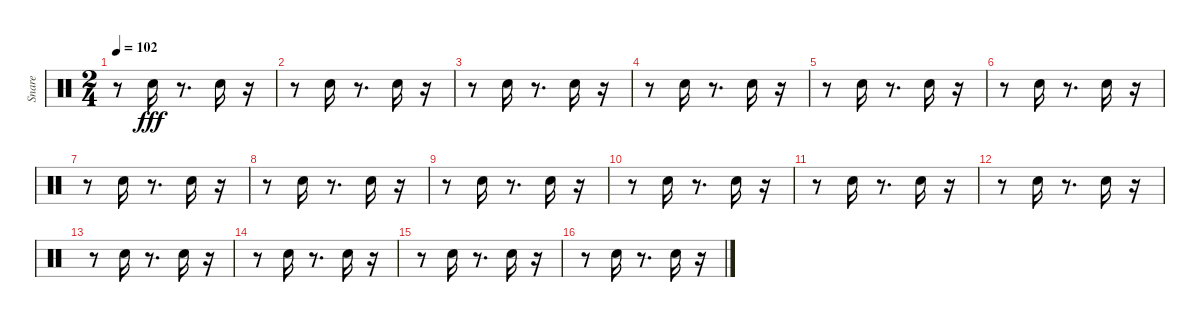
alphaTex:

\track ("Snare" "Snare") {instrument percussion}
\staff {score}
\articulation defaults
\ts (2 4)
\tempo 102
\clef neutral
\ks c
r.8{dy fff} "Electric Snare (hit)".16 r.8{d} "Electric Snare (hit)".16 r.16 |
r.8 "Electric Snare (hit)".16 r.8{d} "Electric Snare (hit)".16 r.16 |
r.8 "Electric Snare (hit)".16 r.8{d} "Electric Snare (hit)".16 r.16 |
r.8 "Electric Snare (hit)".16 r.8{d} "Electric Snare (hit)".16 r.16 |
r.8 "Electric Snare (hit)".16 r.8{d} "Electric Snare (hit)".16 r.16 |
r.8 "Electric Snare (hit)".16 r.8{d} "Electric Snare (hit)".16 r.16 |
r.8 "Electric Snare (hit)".16 r.8{d} "Electric Snare (hit)".16 r.16 |
r.8 "Electric Snare (hit)".16 r.8{d} "Electric Snare (hit)".16 r.16 |
r.8 "Electric Snare (hit)".16 r.8{d} "Electric Snare (hit)".16 r.16 |
r.8 "Electric Snare (hit)".16 r.8{d} "Electric Snare (hit)".16 r.16 |
r.8 "Electric Snare (hit)".16 r.8{d} "Electric Snare (hit)".16 r.16 |
r.8 "Electric Snare (hit)".16 r.8{d} "Electric Snare (hit)".16 r.16 |
r.8 "Electric Snare (hit)".16 r.8{d} "Electric Snare (hit)".16 r.16 |
r.8 "Electric Snare (hit)".16 r.8{d} "Electric Snare (hit)".16 r.16 |
r.8 "Electric Snare (hit)".16 r.8{d} "Electric Snare (hit)".16 r.16 |
r.8 "Electric Snare (hit)".16 r.8{d} "Electric Snare (hit)".16 r.16
